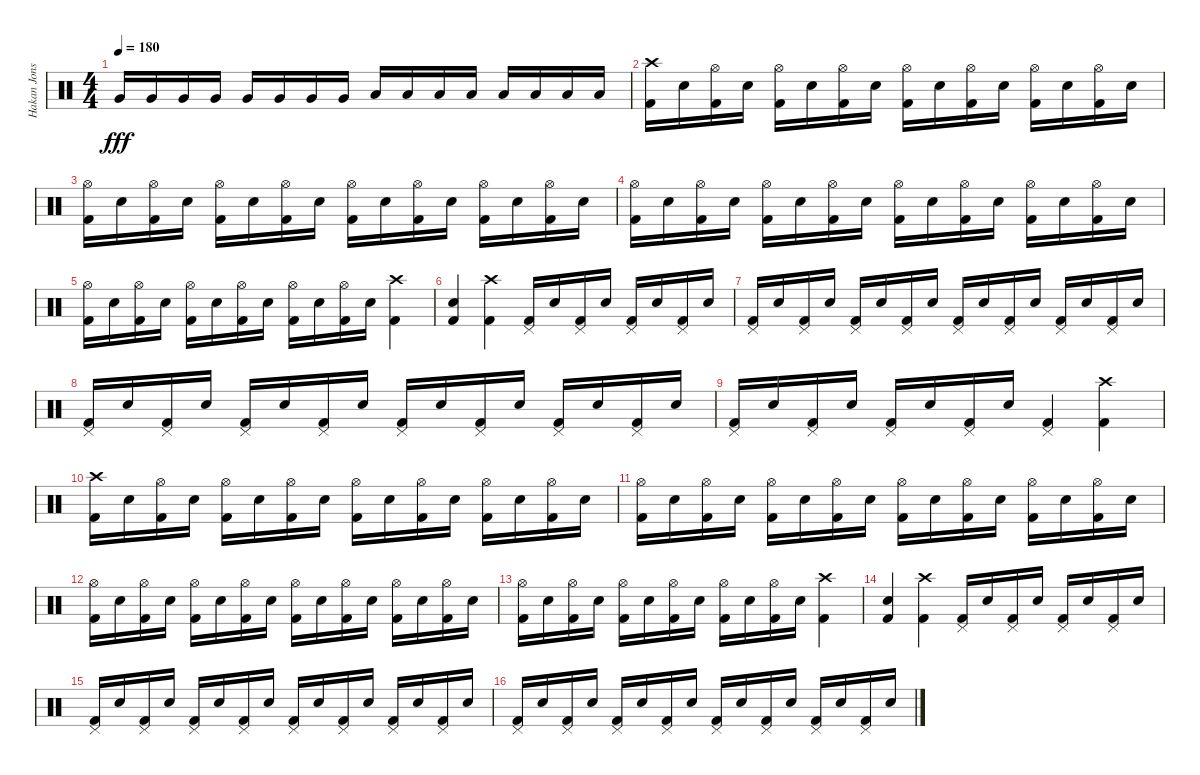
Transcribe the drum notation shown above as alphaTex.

\track ("Hakan Jonsson" "Hakan Jons") {instrument percussion}
\staff {score}
\articulation defaults
\ts (4 4)
\tempo 180
\clef neutral
\ks c "Very Low Tom (hit)".16{dy fff} "Very Low Tom (hit)".16 "Very Low Tom (hit)".16 "Very Low Tom (hit)".16 "Very Low Tom (hit)".16 "Very Low Tom (hit)".16 "Very Low Tom (hit)".16 "Very Low Tom (hit)".16 "Low Floor Tom (hit)".16 "Low Floor Tom (hit)".16 "Low Floor Tom (hit)".16 "Low Floor Tom (hit)".16 "Low Floor Tom (hit)".16 "Low Floor Tom (hit)".16 "Low Floor Tom (hit)".16 "Low Floor Tom (hit)".16
|
("Crash high (hit)" "Kick (hit) 2").16 "Electric Snare (hit)".16 ("Hi-Hat (open)" "Kick (hit) 2").16 "Electric Snare (hit)".16 ("Hi-Hat (open)" "Kick (hit) 2").16 "Electric Snare (hit)".16 ("Hi-Hat (open)" "Kick (hit) 2").16 "Electric Snare (hit)".16 ("Hi-Hat (open)" "Kick (hit) 2").16 "Electric Snare (hit)".16 ("Hi-Hat (open)" "Kick (hit) 2").16 "Electric Snare (hit)".16 ("Hi-Hat (open)" "Kick (hit) 2").16 "Electric Snare (hit)".16 ("Hi-Hat (open)" "Kick (hit) 2").16 "Electric Snare (hit)".16 |
("Hi-Hat (open)" "Kick (hit) 2").16 "Electric Snare (hit)".16 ("Hi-Hat (open)" "Kick (hit) 2").16 "Electric Snare (hit)".16 ("Hi-Hat (open)" "Kick (hit) 2").16 "Electric Snare (hit)".16 ("Hi-Hat (open)" "Kick (hit) 2").16 "Electric Snare (hit)".16 ("Hi-Hat (open)" "Kick (hit) 2").16 "Electric Snare (hit)".16 ("Hi-Hat (open)" "Kick (hit) 2").16 "Electric Snare (hit)".16 ("Hi-Hat (open)" "Kick (hit) 2").16 "Electric Snare (hit)".16 ("Hi-Hat (open)" "Kick (hit) 2").16 "Electric Snare (hit)".16 |
("Hi-Hat (open)" "Kick (hit) 2").16 "Electric Snare (hit)".16 ("Hi-Hat (open)" "Kick (hit) 2").16 "Electric Snare (hit)".16 ("Hi-Hat (open)" "Kick (hit) 2").16 "Electric Snare (hit)".16 ("Hi-Hat (open)" "Kick (hit) 2").16 "Electric Snare (hit)".16 ("Hi-Hat (open)" "Kick (hit) 2").16 "Electric Snare (hit)".16 ("Hi-Hat (open)" "Kick (hit) 2").16 "Electric Snare (hit)".16 ("Hi-Hat (open)" "Kick (hit) 2").16 "Electric Snare (hit)".16 ("Hi-Hat (open)" "Kick (hit) 2").16 "Electric Snare (hit)".16 |
("Hi-Hat (open)" "Kick (hit) 2").16 "Electric Snare (hit)".16 ("Hi-Hat (open)" "Kick (hit) 2").16 "Electric Snare (hit)".16 ("Hi-Hat (open)" "Kick (hit) 2").16 "Electric Snare (hit)".16 ("Hi-Hat (open)" "Kick (hit) 2").16 "Electric Snare (hit)".16 ("Hi-Hat (open)" "Kick (hit) 2").16 "Electric Snare (hit)".16 ("Hi-Hat (open)" "Kick (hit) 2").16 "Electric Snare (hit)".16 ("Crash high (hit)" "Kick (hit) 2").4 |
("Electric Snare (hit)" "Kick (hit) 2").4 ("Crash high (hit)" "Kick (hit) 2").4 ("Pedal Hi-Hat (hit)" "Kick (hit) 2").16 "Electric Snare (hit)".16 ("Pedal Hi-Hat (hit)" "Kick (hit) 2").16 "Electric Snare (hit)".16 ("Pedal Hi-Hat (hit)" "Kick (hit) 2").16 "Electric Snare (hit)".16 ("Pedal Hi-Hat (hit)" "Kick (hit) 2").16 "Electric Snare (hit)".16 |
("Pedal Hi-Hat (hit)" "Kick (hit) 2").16 "Electric Snare (hit)".16 ("Pedal Hi-Hat (hit)" "Kick (hit) 2").16 "Electric Snare (hit)".16 ("Pedal Hi-Hat (hit)" "Kick (hit) 2").16 "Electric Snare (hit)".16 ("Pedal Hi-Hat (hit)" "Kick (hit) 2").16 "Electric Snare (hit)".16 ("Pedal Hi-Hat (hit)" "Kick (hit) 2").16 "Electric Snare (hit)".16 ("Pedal Hi-Hat (hit)" "Kick (hit) 2").16 "Electric Snare (hit)".16 ("Pedal Hi-Hat (hit)" "Kick (hit) 2").16 "Electric Snare (hit)".16 ("Pedal Hi-Hat (hit)" "Kick (hit) 2").16 "Electric Snare (hit)".16 |
("Pedal Hi-Hat (hit)" "Kick (hit) 2").16 "Electric Snare (hit)".16 ("Pedal Hi-Hat (hit)" "Kick (hit) 2").16 "Electric Snare (hit)".16 ("Pedal Hi-Hat (hit)" "Kick (hit) 2").16 "Electric Snare (hit)".16 ("Pedal Hi-Hat (hit)" "Kick (hit) 2").16 "Electric Snare (hit)".16 ("Pedal Hi-Hat (hit)" "Kick (hit) 2").16 "Electric Snare (hit)".16 ("Pedal Hi-Hat (hit)" "Kick (hit) 2").16 "Electric Snare (hit)".16 ("Pedal Hi-Hat (hit)" "Kick (hit) 2").16 "Electric Snare (hit)".16 ("Pedal Hi-Hat (hit)" "Kick (hit) 2").16 "Electric Snare (hit)".16 |
("Pedal Hi-Hat (hit)" "Kick (hit) 2").16 "Electric Snare (hit)".16 ("Pedal Hi-Hat (hit)" "Kick (hit) 2").16 "Electric Snare (hit)".16 ("Pedal Hi-Hat (hit)" "Kick (hit) 2").16 "Electric Snare (hit)".16 ("Pedal Hi-Hat (hit)" "Kick (hit) 2").16 "Electric Snare (hit)".16 ("Pedal Hi-Hat (hit)" "Kick (hit) 2").4 ("Crash high (hit)" "Kick (hit) 2").4 |
("Crash high (hit)" "Kick (hit) 2").16 "Electric Snare (hit)".16 ("Hi-Hat (open)" "Kick (hit) 2").16 "Electric Snare (hit)".16 ("Hi-Hat (open)" "Kick (hit) 2").16 "Electric Snare (hit)".16 ("Hi-Hat (open)" "Kick (hit) 2").16 "Electric Snare (hit)".16 ("Hi-Hat (open)" "Kick (hit) 2").16 "Electric Snare (hit)".16 ("Hi-Hat (open)" "Kick (hit) 2").16 "Electric Snare (hit)".16 ("Hi-Hat (open)" "Kick (hit) 2").16 "Electric Snare (hit)".16 ("Hi-Hat (open)" "Kick (hit) 2").16 "Electric Snare (hit)".16 |
("Hi-Hat (open)" "Kick (hit) 2").16 "Electric Snare (hit)".16 ("Hi-Hat (open)" "Kick (hit) 2").16 "Electric Snare (hit)".16 ("Hi-Hat (open)" "Kick (hit) 2").16 "Electric Snare (hit)".16 ("Hi-Hat (open)" "Kick (hit) 2").16 "Electric Snare (hit)".16 ("Hi-Hat (open)" "Kick (hit) 2").16 "Electric Snare (hit)".16 ("Hi-Hat (open)" "Kick (hit) 2").16 "Electric Snare (hit)".16 ("Hi-Hat (open)" "Kick (hit) 2").16 "Electric Snare (hit)".16 ("Hi-Hat (open)" "Kick (hit) 2").16 "Electric Snare (hit)".16 |
("Hi-Hat (open)" "Kick (hit) 2").16 "Electric Snare (hit)".16 ("Hi-Hat (open)" "Kick (hit) 2").16 "Electric Snare (hit)".16 ("Hi-Hat (open)" "Kick (hit) 2").16 "Electric Snare (hit)".16 ("Hi-Hat (open)" "Kick (hit) 2").16 "Electric Snare (hit)".16 ("Hi-Hat (open)" "Kick (hit) 2").16 "Electric Snare (hit)".16 ("Hi-Hat (open)" "Kick (hit) 2").16 "Electric Snare (hit)".16 ("Hi-Hat (open)" "Kick (hit) 2").16 "Electric Snare (hit)".16 ("Hi-Hat (open)" "Kick (hit) 2").16 "Electric Snare (hit)".16 |
("Hi-Hat (open)" "Kick (hit) 2").16 "Electric Snare (hit)".16 ("Hi-Hat (open)" "Kick (hit) 2").16 "Electric Snare (hit)".16 ("Hi-Hat (open)" "Kick (hit) 2").16 "Electric Snare (hit)".16 ("Hi-Hat (open)" "Kick (hit) 2").16 "Electric Snare (hit)".16 ("Hi-Hat (open)" "Kick (hit) 2").16 "Electric Snare (hit)".16 ("Hi-Hat (open)" "Kick (hit) 2").16 "Electric Snare (hit)".16 ("Crash high (hit)" "Kick (hit) 2").4 |
("Electric Snare (hit)" "Kick (hit) 2").4 ("Crash high (hit)" "Kick (hit) 2").4 ("Pedal Hi-Hat (hit)" "Kick (hit) 2").16 "Electric Snare (hit)".16 ("Pedal Hi-Hat (hit)" "Kick (hit) 2").16 "Electric Snare (hit)".16 ("Pedal Hi-Hat (hit)" "Kick (hit) 2").16 "Electric Snare (hit)".16 ("Pedal Hi-Hat (hit)" "Kick (hit) 2").16 "Electric Snare (hit)".16 |
("Pedal Hi-Hat (hit)" "Kick (hit) 2").16 "Electric Snare (hit)".16 ("Pedal Hi-Hat (hit)" "Kick (hit) 2").16 "Electric Snare (hit)".16 ("Pedal Hi-Hat (hit)" "Kick (hit) 2").16 "Electric Snare (hit)".16 ("Pedal Hi-Hat (hit)" "Kick (hit) 2").16 "Electric Snare (hit)".16 ("Pedal Hi-Hat (hit)" "Kick (hit) 2").16 "Electric Snare (hit)".16 ("Pedal Hi-Hat (hit)" "Kick (hit) 2").16 "Electric Snare (hit)".16 ("Pedal Hi-Hat (hit)" "Kick (hit) 2").16 "Electric Snare (hit)".16 ("Pedal Hi-Hat (hit)" "Kick (hit) 2").16 "Electric Snare (hit)".16 |
("Pedal Hi-Hat (hit)" "Kick (hit) 2").16 "Electric Snare (hit)".16 ("Pedal Hi-Hat (hit)" "Kick (hit) 2").16 "Electric Snare (hit)".16 ("Pedal Hi-Hat (hit)" "Kick (hit) 2").16 "Electric Snare (hit)".16 ("Pedal Hi-Hat (hit)" "Kick (hit) 2").16 "Electric Snare (hit)".16 ("Pedal Hi-Hat (hit)" "Kick (hit) 2").16 "Electric Snare (hit)".16 ("Pedal Hi-Hat (hit)" "Kick (hit) 2").16 "Electric Snare (hit)".16 ("Pedal Hi-Hat (hit)" "Kick (hit) 2").16 "Electric Snare (hit)".16 ("Pedal Hi-Hat (hit)" "Kick (hit) 2").16 "Electric Snare (hit)".16
